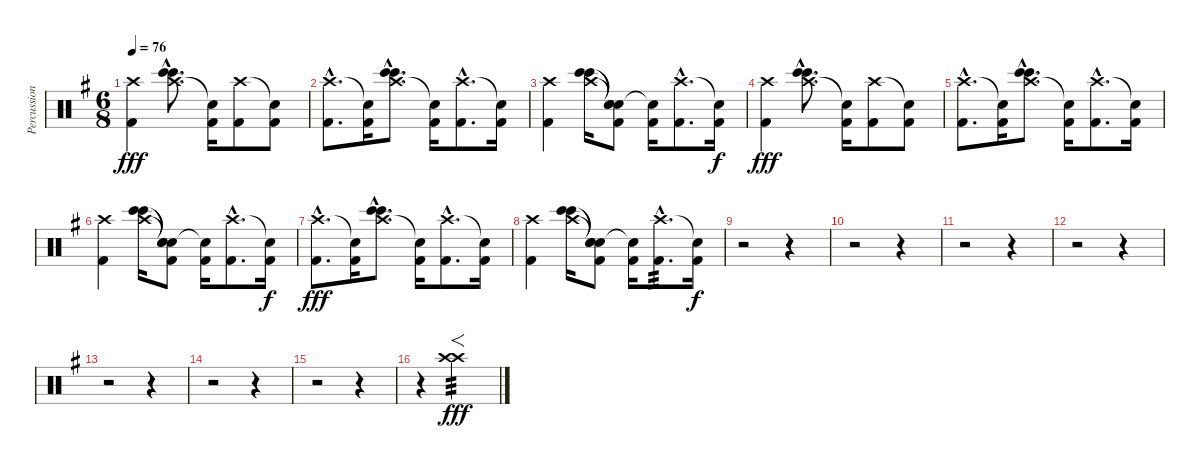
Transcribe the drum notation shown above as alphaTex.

\track ("Percussions 1" "Percussion") {instrument percussion}
\staff {score}
\articulation defaults
\ts (6 8)
\tempo 76
\clef neutral
\ks g
("Crash high (hit)" "Kick (hit) 2").4{dy fff} ("Crash high (hit)"{hac} "Bongo High (hit)"{hac} "Bongo High (hit)"{hac}).8{d} ("Snare (hit)"{t} "Kick (hit) 2").16 ("Crash high (hit)" "Kick (hit) 2").8 ("Snare (hit)"{t} "Kick (hit) 2").8 |
("Crash high (hit)"{hac} "Kick (hit) 2"{hac}).8{d} ("Snare (hit)"{t} "Kick (hit) 2").16 ("Crash high (hit)"{hac} "Bongo High (hit)"{hac} "Bongo High (hit)"{hac}).8{d} ("Snare (hit)"{t} "Kick (hit) 2").16 ("Crash high (hit)"{hac} "Kick (hit) 2"{hac}).8{d} ("Snare (hit)"{t} "Kick (hit) 2").16 |
("Crash high (hit)" "Kick (hit) 2").4 ("Crash high (hit)" "Bongo High (hit)" "Bongo High (hit)").16 ("Snare (hit)"{t} "Snare (hit)"{t} "Snare (hit)"{t} "Kick (hit) 2").8 ("Snare (hit)"{t} "Kick (hit) 2").16 ("Crash high (hit)"{hac} "Kick (hit) 2"{hac}).8{d} ("Snare (hit)"{t} "Kick (hit) 2").16{dy f} |
("Crash high (hit)" "Kick (hit) 2").4{dy fff} ("Crash high (hit)"{hac} "Bongo High (hit)"{hac} "Bongo High (hit)"{hac}).8{d} ("Snare (hit)"{t} "Kick (hit) 2").16 ("Crash high (hit)" "Kick (hit) 2").8 ("Snare (hit)"{t} "Kick (hit) 2").8 |
("Crash high (hit)"{hac} "Kick (hit) 2"{hac}).8{d} ("Snare (hit)"{t} "Kick (hit) 2").16 ("Crash high (hit)"{hac} "Bongo High (hit)"{hac} "Bongo High (hit)"{hac}).8{d} ("Snare (hit)"{t} "Kick (hit) 2").16 ("Crash high (hit)"{hac} "Kick (hit) 2"{hac}).8{d} ("Snare (hit)"{t} "Kick (hit) 2").16 |
("Crash high (hit)" "Kick (hit) 2").4 ("Crash high (hit)" "Bongo High (hit)" "Bongo High (hit)").16 ("Snare (hit)"{t} "Snare (hit)"{t} "Snare (hit)"{t} "Kick (hit) 2").8 ("Snare (hit)"{t} "Kick (hit) 2").16 ("Crash high (hit)"{hac} "Kick (hit) 2"{hac}).8{d} ("Snare (hit)"{t} "Kick (hit) 2").16{dy f} |
("Crash high (hit)"{hac} "Kick (hit) 2"{hac}).8{d dy fff} ("Snare (hit)"{t} "Kick (hit) 2").16 ("Crash high (hit)"{hac} "Bongo High (hit)"{hac} "Bongo High (hit)"{hac}).8{d} ("Snare (hit)"{t} "Kick (hit) 2").16 ("Crash high (hit)"{hac} "Kick (hit) 2"{hac}).8{d} ("Snare (hit)"{t} "Kick (hit) 2").16 |
("Crash high (hit)" "Kick (hit) 2").4 ("Crash high (hit)" "Bongo High (hit)" "Bongo High (hit)").16 ("Snare (hit)"{t} "Snare (hit)"{t} "Snare (hit)"{t} "Kick (hit) 2").8 ("Snare (hit)"{t} "Kick (hit) 2").16 ("Crash high (hit)"{hac} "Kick (hit) 2"{hac}).8{d tp 3} ("Snare (hit)"{t} "Kick (hit) 2").16{dy f} |
r.2 r.4 |
r.2 r.4 |
r.2 r.4 |
r.2 r.4 |
r.2 r.4 |
r.2 r.4 |
r.2 r.4 |
r.4 ("Crash high (hit)" "Crash high (hit)").2{f tp 3 dy fff}
